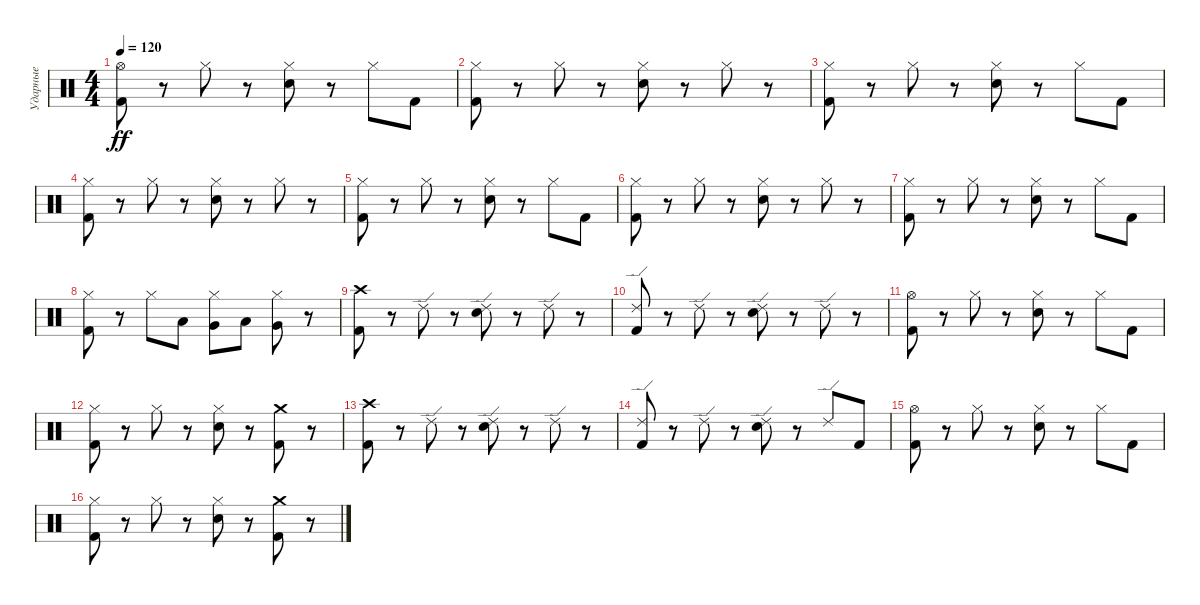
\track ("Ударные" "Ударные") {instrument percussion}
\staff {score}
\articulation defaults
\ts (4 4)
\tempo 120
\clef neutral
\ks c
("Hi-Hat (open)" "Kick (hit) 2").8{dy ff} r.8 "Hi-Hat (closed)".8 r.8 ("Hi-Hat (closed)" "Snare (hit) 2").8 r.8 "Hi-Hat (closed)".8 "Kick (hit) 2".8 |
("Hi-Hat (closed)" "Kick (hit) 2").8 r.8 "Hi-Hat (closed)".8 r.8 ("Hi-Hat (closed)" "Snare (hit) 2").8 r.8 "Hi-Hat (closed)".8 r.8 |
("Hi-Hat (closed)" "Kick (hit) 2").8 r.8 "Hi-Hat (closed)".8 r.8 ("Hi-Hat (closed)" "Snare (hit) 2").8 r.8 "Hi-Hat (closed)".8 "Kick (hit) 2".8 |
("Hi-Hat (closed)" "Kick (hit) 2").8 r.8 "Hi-Hat (closed)".8 r.8 ("Hi-Hat (closed)" "Snare (hit) 2").8 r.8 "Hi-Hat (closed)".8 r.8 |
("Hi-Hat (closed)" "Kick (hit) 2").8 r.8 "Hi-Hat (closed)".8 r.8 ("Hi-Hat (closed)" "Snare (hit) 2").8 r.8 "Hi-Hat (closed)".8 "Kick (hit) 2".8 |
("Hi-Hat (closed)" "Kick (hit) 2").8 r.8 "Hi-Hat (closed)".8 r.8 ("Hi-Hat (closed)" "Snare (hit) 2").8 r.8 "Hi-Hat (closed)".8 r.8 |
("Hi-Hat (closed)" "Kick (hit) 2").8 r.8 "Hi-Hat (closed)".8 r.8 ("Hi-Hat (closed)" "Snare (hit) 2").8 r.8 "Hi-Hat (closed)".8 "Kick (hit) 2".8 |
("Hi-Hat (closed)" "Kick (hit) 2").8 r.8 "Hi-Hat (closed)".8 "Low Tom (hit)".8 ("Hi-Hat (closed)" "Very Low Tom (hit)").8 "Low Floor Tom (hit)".8 ("Hi-Hat (closed)" "Very Low Tom (hit)").8 r.8 |
("Crash high (hit)" "Kick (hit) 2").8 r.8 "Ride (edge) 2".8 r.8 ("Ride (edge) 2" "Snare (hit) 2").8 r.8 "Ride (edge) 2".8 r.8 |
("Ride (edge) 2" "Kick (hit) 2").8 r.8 "Ride (edge) 2".8 r.8 ("Ride (edge) 2" "Snare (hit) 2").8 r.8 "Ride (edge) 2".8 r.8 |
("Hi-Hat (open)" "Kick (hit) 2").8 r.8 "Hi-Hat (closed)".8 r.8 ("Hi-Hat (closed)" "Snare (hit) 2").8 r.8 "Hi-Hat (closed)".8 "Kick (hit) 2".8 |
("Hi-Hat (closed)" "Kick (hit) 2").8 r.8 "Hi-Hat (closed)".8 r.8 ("Hi-Hat (closed)" "Snare (hit) 2").8 r.8 ("Crash medium (hit)" "Kick (hit) 2").8 r.8 |
("Crash high (hit)" "Kick (hit) 2").8 r.8 "Ride (edge) 2".8 r.8 ("Ride (edge) 2" "Snare (hit) 2").8 r.8 "Ride (edge) 2".8 r.8 |
("Ride (edge) 2" "Kick (hit) 2").8 r.8 "Ride (edge) 2".8 r.8 ("Ride (edge) 2" "Snare (hit) 2").8 r.8 "Ride (edge) 2".8 "Kick (hit) 2".8 |
("Hi-Hat (open)" "Kick (hit) 2").8 r.8 "Hi-Hat (closed)".8 r.8 ("Hi-Hat (closed)" "Snare (hit) 2").8 r.8 "Hi-Hat (closed)".8 "Kick (hit) 2".8 |
("Hi-Hat (closed)" "Kick (hit) 2").8 r.8 "Hi-Hat (closed)".8 r.8 ("Hi-Hat (closed)" "Snare (hit) 2").8 r.8 ("Crash medium (hit)" "Kick (hit) 2").8 r.8
